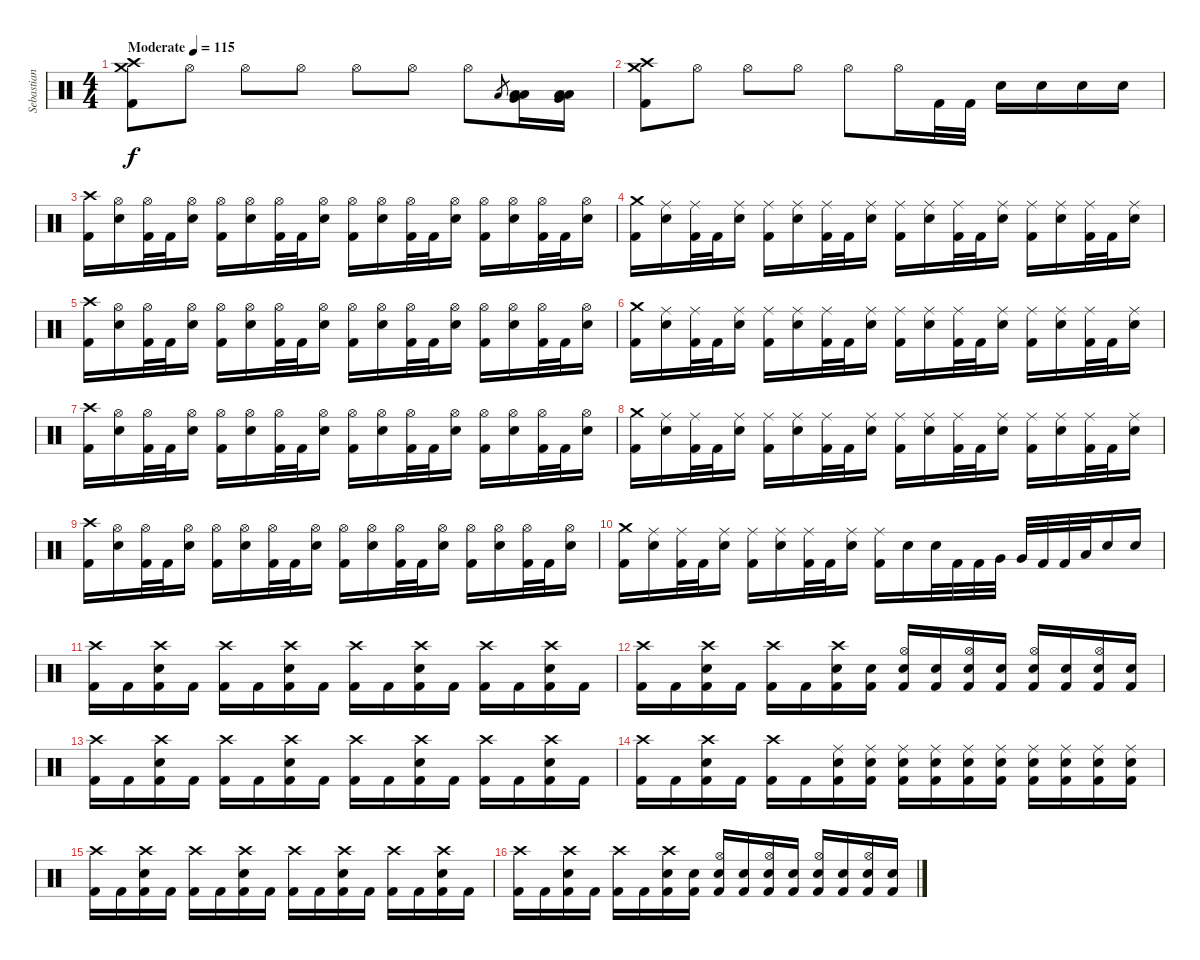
\track ("Sebastian H." "Sebastian ") {instrument percussion}
\staff {score}
\articulation defaults
\ts (4 4)
\tempo (115 "Moderate")
\clef neutral
\ks c
("Kick (hit) 2" "Crash medium (hit)" "Crash high (hit)").8{dy f} "Hi-Hat (open)".8 "Hi-Hat (open)".8 "Hi-Hat (open)".8 "Hi-Hat (open)".8 "Hi-Hat (open)".8 "Hi-Hat (open)".8 "Low Tom (hit)".8{gr} ("Low Floor Tom (hit)" "Very Low Tom (hit)" "Low Tom (hit)").16 ("Low Floor Tom (hit)" "Very Low Tom (hit)" "Low Tom (hit)").16 |
("Kick (hit) 2" "Crash medium (hit)" "Crash high (hit)").8 "Hi-Hat (open)".8 "Hi-Hat (open)".8 "Hi-Hat (open)".8 "Hi-Hat (open)".8 "Hi-Hat (open)".16 "Kick (hit) 2".32 "Kick (hit) 2".32 "Electric Snare (hit)".16 "Electric Snare (hit)".16 "Electric Snare (hit)".16 "Electric Snare (hit)".16 |
("Crash high (hit)" "Kick (hit) 2").16 ("Hi-Hat (open)" "Electric Snare (hit)").16 ("Hi-Hat (open)" "Kick (hit) 2").32 "Kick (hit) 2".32 ("Hi-Hat (open)" "Electric Snare (hit)").16 ("Hi-Hat (open)" "Kick (hit) 2").16 ("Hi-Hat (open)" "Electric Snare (hit)").16 ("Hi-Hat (open)" "Kick (hit) 2").32 "Kick (hit) 2".32 ("Hi-Hat (open)" "Electric Snare (hit)").16 ("Hi-Hat (open)" "Kick (hit) 2").16 ("Hi-Hat (open)" "Electric Snare (hit)").16 ("Hi-Hat (open)" "Kick (hit) 2").32 "Kick (hit) 2".32 ("Hi-Hat (open)" "Electric Snare (hit)").16 ("Hi-Hat (open)" "Kick (hit) 2").16 ("Hi-Hat (open)" "Electric Snare (hit)").16 ("Hi-Hat (open)" "Kick (hit) 2").32 "Kick (hit) 2".32 ("Hi-Hat (open)" "Electric Snare (hit)").16 |
("Crash medium (hit)" "Kick (hit) 2").16 ("Ride (middle)" "Electric Snare (hit)").16 ("Ride (middle)" "Kick (hit) 2").32 "Kick (hit) 2".32 ("Ride (middle)" "Electric Snare (hit)").16 ("Ride (middle)" "Kick (hit) 2").16 ("Ride (middle)" "Electric Snare (hit)").16 ("Ride (middle)" "Kick (hit) 2").32 "Kick (hit) 2".32 ("Ride (middle)" "Electric Snare (hit)").16 ("Ride (middle)" "Kick (hit) 2").16 ("Ride (middle)" "Electric Snare (hit)").16 ("Ride (middle)" "Kick (hit) 2").32 "Kick (hit) 2".32 ("Ride (middle)" "Electric Snare (hit)").16 ("Ride (middle)" "Kick (hit) 2").16 ("Ride (middle)" "Electric Snare (hit)").16 ("Ride (middle)" "Kick (hit) 2").32 "Kick (hit) 2".32 ("Ride (middle)" "Electric Snare (hit)").16 |
("Crash high (hit)" "Kick (hit) 2").16 ("Hi-Hat (open)" "Electric Snare (hit)").16 ("Hi-Hat (open)" "Kick (hit) 2").32 "Kick (hit) 2".32 ("Hi-Hat (open)" "Electric Snare (hit)").16 ("Hi-Hat (open)" "Kick (hit) 2").16 ("Hi-Hat (open)" "Electric Snare (hit)").16 ("Hi-Hat (open)" "Kick (hit) 2").32 "Kick (hit) 2".32 ("Hi-Hat (open)" "Electric Snare (hit)").16 ("Hi-Hat (open)" "Kick (hit) 2").16 ("Hi-Hat (open)" "Electric Snare (hit)").16 ("Hi-Hat (open)" "Kick (hit) 2").32 "Kick (hit) 2".32 ("Hi-Hat (open)" "Electric Snare (hit)").16 ("Hi-Hat (open)" "Kick (hit) 2").16 ("Hi-Hat (open)" "Electric Snare (hit)").16 ("Hi-Hat (open)" "Kick (hit) 2").32 "Kick (hit) 2".32 ("Hi-Hat (open)" "Electric Snare (hit)").16 |
("Crash medium (hit)" "Kick (hit) 2").16 ("Ride (middle)" "Electric Snare (hit)").16 ("Ride (middle)" "Kick (hit) 2").32 "Kick (hit) 2".32 ("Ride (middle)" "Electric Snare (hit)").16 ("Ride (middle)" "Kick (hit) 2").16 ("Ride (middle)" "Electric Snare (hit)").16 ("Ride (middle)" "Kick (hit) 2").32 "Kick (hit) 2".32 ("Ride (middle)" "Electric Snare (hit)").16 ("Ride (middle)" "Kick (hit) 2").16 ("Ride (middle)" "Electric Snare (hit)").16 ("Ride (middle)" "Kick (hit) 2").32 "Kick (hit) 2".32 ("Ride (middle)" "Electric Snare (hit)").16 ("Ride (middle)" "Kick (hit) 2").16 ("Ride (middle)" "Electric Snare (hit)").16 ("Ride (middle)" "Kick (hit) 2").32 "Kick (hit) 2".32 ("Ride (middle)" "Electric Snare (hit)").16 |
("Crash high (hit)" "Kick (hit) 2").16 ("Hi-Hat (open)" "Electric Snare (hit)").16 ("Hi-Hat (open)" "Kick (hit) 2").32 "Kick (hit) 2".32 ("Hi-Hat (open)" "Electric Snare (hit)").16 ("Hi-Hat (open)" "Kick (hit) 2").16 ("Hi-Hat (open)" "Electric Snare (hit)").16 ("Hi-Hat (open)" "Kick (hit) 2").32 "Kick (hit) 2".32 ("Hi-Hat (open)" "Electric Snare (hit)").16 ("Hi-Hat (open)" "Kick (hit) 2").16 ("Hi-Hat (open)" "Electric Snare (hit)").16 ("Hi-Hat (open)" "Kick (hit) 2").32 "Kick (hit) 2".32 ("Hi-Hat (open)" "Electric Snare (hit)").16 ("Hi-Hat (open)" "Kick (hit) 2").16 ("Hi-Hat (open)" "Electric Snare (hit)").16 ("Hi-Hat (open)" "Kick (hit) 2").32 "Kick (hit) 2".32 ("Hi-Hat (open)" "Electric Snare (hit)").16 |
("Crash medium (hit)" "Kick (hit) 2").16 ("Ride (middle)" "Electric Snare (hit)").16 ("Ride (middle)" "Kick (hit) 2").32 "Kick (hit) 2".32 ("Ride (middle)" "Electric Snare (hit)").16 ("Ride (middle)" "Kick (hit) 2").16 ("Ride (middle)" "Electric Snare (hit)").16 ("Ride (middle)" "Kick (hit) 2").32 "Kick (hit) 2".32 ("Ride (middle)" "Electric Snare (hit)").16 ("Ride (middle)" "Kick (hit) 2").16 ("Ride (middle)" "Electric Snare (hit)").16 ("Ride (middle)" "Kick (hit) 2").32 "Kick (hit) 2".32 ("Ride (middle)" "Electric Snare (hit)").16 ("Ride (middle)" "Kick (hit) 2").16 ("Ride (middle)" "Electric Snare (hit)").16 ("Ride (middle)" "Kick (hit) 2").32 "Kick (hit) 2".32 ("Ride (middle)" "Electric Snare (hit)").16 |
("Crash high (hit)" "Kick (hit) 2").16 ("Hi-Hat (open)" "Electric Snare (hit)").16 ("Hi-Hat (open)" "Kick (hit) 2").32 "Kick (hit) 2".32 ("Hi-Hat (open)" "Electric Snare (hit)").16 ("Hi-Hat (open)" "Kick (hit) 2").16 ("Hi-Hat (open)" "Electric Snare (hit)").16 ("Hi-Hat (open)" "Kick (hit) 2").32 "Kick (hit) 2".32 ("Hi-Hat (open)" "Electric Snare (hit)").16 ("Hi-Hat (open)" "Kick (hit) 2").16 ("Hi-Hat (open)" "Electric Snare (hit)").16 ("Hi-Hat (open)" "Kick (hit) 2").32 "Kick (hit) 2".32 ("Hi-Hat (open)" "Electric Snare (hit)").16 ("Hi-Hat (open)" "Kick (hit) 2").16 ("Hi-Hat (open)" "Electric Snare (hit)").16 ("Hi-Hat (open)" "Kick (hit) 2").32 "Kick (hit) 2".32 ("Hi-Hat (open)" "Electric Snare (hit)").16 |
("Crash medium (hit)" "Kick (hit) 2").16 ("Ride (middle)" "Electric Snare (hit)").16 ("Ride (middle)" "Kick (hit) 2").32 "Kick (hit) 2".32 ("Ride (middle)" "Electric Snare (hit)").16 ("Ride (middle)" "Kick (hit) 2").16 ("Ride (middle)" "Electric Snare (hit)").16 ("Ride (middle)" "Kick (hit) 2").32 "Kick (hit) 2".32 ("Ride (middle)" "Electric Snare (hit)").16 ("Ride (middle)" "Kick (hit) 2").16 "Electric Snare (hit)".16 "Electric Snare (hit)".32 "Kick (hit) 2".32 "Kick (hit) 2".32 "Very Low Tom (hit)".32 "Very Low Tom (hit)".32 "Kick (hit) 2".32 "Kick (hit) 2".32 "Low Floor Tom (hit)".32 "Electric Snare (hit)".16 "Electric Snare (hit)".16 |
("Crash high (hit)" "Kick (hit) 2").16 "Kick (hit) 2".16 ("Crash high (hit)" "Electric Snare (hit)" "Kick (hit) 2").16 "Kick (hit) 2".16 ("Crash high (hit)" "Kick (hit) 2").16 "Kick (hit) 2".16 ("Crash high (hit)" "Electric Snare (hit)" "Kick (hit) 2").16 "Kick (hit) 2".16 ("Crash high (hit)" "Kick (hit) 2").16 "Kick (hit) 2".16 ("Crash high (hit)" "Electric Snare (hit)" "Kick (hit) 2").16 "Kick (hit) 2".16 ("Crash high (hit)" "Kick (hit) 2").16 "Kick (hit) 2".16 ("Crash high (hit)" "Electric Snare (hit)" "Kick (hit) 2").16 "Kick (hit) 2".16 |
("Crash high (hit)" "Kick (hit) 2").16 "Kick (hit) 2".16 ("Crash high (hit)" "Electric Snare (hit)" "Kick (hit) 2").16 "Kick (hit) 2".16 ("Crash high (hit)" "Kick (hit) 2").16 "Kick (hit) 2".16 ("Crash high (hit)" "Electric Snare (hit)" "Kick (hit) 2").16 ("Electric Snare (hit)" "Kick (hit) 2").16 ("Hi-Hat (open)" "Electric Snare (hit)" "Kick (hit) 2").16 ("Electric Snare (hit)" "Kick (hit) 2").16 ("Hi-Hat (open)" "Electric Snare (hit)" "Kick (hit) 2").16 ("Electric Snare (hit)" "Kick (hit) 2").16 ("Hi-Hat (open)" "Electric Snare (hit)" "Kick (hit) 2").16 ("Electric Snare (hit)" "Kick (hit) 2").16 ("Hi-Hat (open)" "Electric Snare (hit)" "Kick (hit) 2").16 ("Electric Snare (hit)" "Kick (hit) 2").16 |
("Crash high (hit)" "Kick (hit) 2").16 "Kick (hit) 2".16 ("Crash high (hit)" "Electric Snare (hit)" "Kick (hit) 2").16 "Kick (hit) 2".16 ("Crash high (hit)" "Kick (hit) 2").16 "Kick (hit) 2".16 ("Crash high (hit)" "Electric Snare (hit)" "Kick (hit) 2").16 "Kick (hit) 2".16 ("Crash high (hit)" "Kick (hit) 2").16 "Kick (hit) 2".16 ("Crash high (hit)" "Electric Snare (hit)" "Kick (hit) 2").16 "Kick (hit) 2".16 ("Crash high (hit)" "Kick (hit) 2").16 "Kick (hit) 2".16 ("Crash high (hit)" "Electric Snare (hit)" "Kick (hit) 2").16 "Kick (hit) 2".16 |
("Crash high (hit)" "Kick (hit) 2").16 "Kick (hit) 2".16 ("Crash high (hit)" "Electric Snare (hit)" "Kick (hit) 2").16 "Kick (hit) 2".16 ("Crash high (hit)" "Kick (hit) 2").16 "Kick (hit) 2".16 ("Ride (middle)" "Electric Snare (hit)" "Kick (hit) 2").16 ("Ride (middle)" "Electric Snare (hit)" "Kick (hit) 2").16 ("Ride (middle)" "Electric Snare (hit)" "Kick (hit) 2").16 ("Ride (middle)" "Electric Snare (hit)" "Kick (hit) 2").16 ("Ride (middle)" "Electric Snare (hit)" "Kick (hit) 2").16 ("Ride (middle)" "Electric Snare (hit)" "Kick (hit) 2").16 ("Ride (middle)" "Electric Snare (hit)" "Kick (hit) 2").16 ("Ride (middle)" "Electric Snare (hit)" "Kick (hit) 2").16 ("Ride (middle)" "Electric Snare (hit)" "Kick (hit) 2").16 ("Ride (middle)" "Electric Snare (hit)" "Kick (hit) 2").16 |
("Crash high (hit)" "Kick (hit) 2").16 "Kick (hit) 2".16 ("Crash high (hit)" "Electric Snare (hit)" "Kick (hit) 2").16 "Kick (hit) 2".16 ("Crash high (hit)" "Kick (hit) 2").16 "Kick (hit) 2".16 ("Crash high (hit)" "Electric Snare (hit)" "Kick (hit) 2").16 "Kick (hit) 2".16 ("Crash high (hit)" "Kick (hit) 2").16 "Kick (hit) 2".16 ("Crash high (hit)" "Electric Snare (hit)" "Kick (hit) 2").16 "Kick (hit) 2".16 ("Crash high (hit)" "Kick (hit) 2").16 "Kick (hit) 2".16 ("Crash high (hit)" "Electric Snare (hit)" "Kick (hit) 2").16 "Kick (hit) 2".16 |
("Crash high (hit)" "Kick (hit) 2").16 "Kick (hit) 2".16 ("Crash high (hit)" "Electric Snare (hit)" "Kick (hit) 2").16 "Kick (hit) 2".16 ("Crash high (hit)" "Kick (hit) 2").16 "Kick (hit) 2".16 ("Crash high (hit)" "Electric Snare (hit)" "Kick (hit) 2").16 ("Electric Snare (hit)" "Kick (hit) 2").16 ("Hi-Hat (open)" "Electric Snare (hit)" "Kick (hit) 2").16 ("Electric Snare (hit)" "Kick (hit) 2").16 ("Hi-Hat (open)" "Electric Snare (hit)" "Kick (hit) 2").16 ("Electric Snare (hit)" "Kick (hit) 2").16 ("Hi-Hat (open)" "Electric Snare (hit)" "Kick (hit) 2").16 ("Electric Snare (hit)" "Kick (hit) 2").16 ("Hi-Hat (open)" "Electric Snare (hit)" "Kick (hit) 2").16 ("Electric Snare (hit)" "Kick (hit) 2").16
